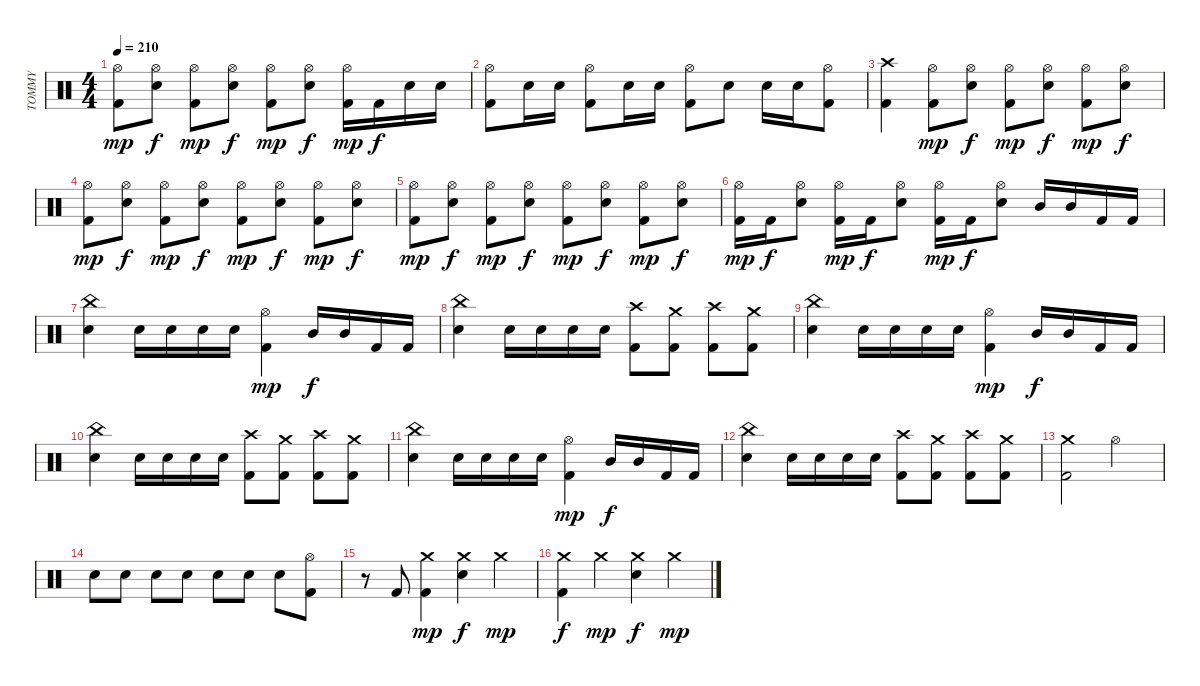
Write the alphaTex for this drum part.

\track ("TOMMY" "TOMMY") {instrument percussion}
\staff {score}
\articulation defaults
\ts (4 4)
\tempo 210
\clef neutral
\ks c
("Kick (hit) 2" "Hi-Hat (open)").8{dy mp} ("Snare (hit) 2" "Hi-Hat (open)").8{dy f} ("Kick (hit) 2" "Hi-Hat (open)").8{dy mp} ("Snare (hit) 2" "Hi-Hat (open)").8{dy f} ("Kick (hit) 2" "Hi-Hat (open)").8{dy mp} ("Snare (hit) 2" "Hi-Hat (open)").8{dy f} ("Kick (hit) 2" "Hi-Hat (open)").16{dy mp} "Kick (hit) 2".16{dy f} "Snare (hit) 2".16 "Snare (hit) 2".16 |
("Kick (hit) 2" "Hi-Hat (open)").8 "Snare (hit) 2".16 "Snare (hit) 2".16 ("Kick (hit) 2" "Hi-Hat (open)").8 "Snare (hit) 2".16 "Snare (hit) 2".16 ("Kick (hit) 2" "Hi-Hat (open)").8 "Snare (hit) 2".8 "Snare (hit) 2".16 "Snare (hit) 2".16 ("Kick (hit) 2" "Hi-Hat (open)").8 |
("Kick (hit) 2" "Crash high (hit)").4 ("Kick (hit) 2" "Hi-Hat (open)").8{dy mp} ("Snare (hit) 2" "Hi-Hat (open)").8{dy f} ("Kick (hit) 2" "Hi-Hat (open)").8{dy mp} ("Snare (hit) 2" "Hi-Hat (open)").8{dy f} ("Kick (hit) 2" "Hi-Hat (open)").8{dy mp} ("Snare (hit) 2" "Hi-Hat (open)").8{dy f} |
("Kick (hit) 2" "Hi-Hat (open)").8{dy mp} ("Snare (hit) 2" "Hi-Hat (open)").8{dy f} ("Kick (hit) 2" "Hi-Hat (open)").8{dy mp} ("Snare (hit) 2" "Hi-Hat (open)").8{dy f} ("Kick (hit) 2" "Hi-Hat (open)").8{dy mp} ("Snare (hit) 2" "Hi-Hat (open)").8{dy f} ("Kick (hit) 2" "Hi-Hat (open)").8{dy mp} ("Snare (hit) 2" "Hi-Hat (open)").8{dy f} |
("Kick (hit) 2" "Hi-Hat (open)").8{dy mp} ("Snare (hit) 2" "Hi-Hat (open)").8{dy f} ("Kick (hit) 2" "Hi-Hat (open)").8{dy mp} ("Snare (hit) 2" "Hi-Hat (open)").8{dy f} ("Kick (hit) 2" "Hi-Hat (open)").8{dy mp} ("Snare (hit) 2" "Hi-Hat (open)").8{dy f} ("Kick (hit) 2" "Hi-Hat (open)").8{dy mp} ("Snare (hit) 2" "Hi-Hat (open)").8{dy f} |
("Kick (hit) 2" "Hi-Hat (open)").16{dy mp} "Kick (hit) 2".16{dy f} ("Snare (hit) 2" "Hi-Hat (open)").8 ("Kick (hit) 2" "Hi-Hat (open)").16{dy mp} "Kick (hit) 2".16{dy f} ("Snare (hit) 2" "Hi-Hat (open)").8 ("Kick (hit) 2" "Hi-Hat (open)").16{dy mp} "Kick (hit) 2".16{dy f} ("Snare (hit) 2" "Hi-Hat (open)").8 "Mid Tom (hit)".16 "Mid Tom (hit)".16 "Kick (hit) 2".16 "Kick (hit) 2".16 |
("Snare (hit) 2" "China (hit)").4 "Snare (hit) 2".16 "Snare (hit) 2".16 "Snare (hit) 2".16 "Snare (hit) 2".16 ("Kick (hit) 2" "Hi-Hat (open)").4{dy mp} "Mid Tom (hit)".16{dy f} "Mid Tom (hit)".16 "Kick (hit) 2".16 "Kick (hit) 2".16 |
("Snare (hit) 2" "China (hit)").4 "Snare (hit) 2".16 "Snare (hit) 2".16 "Snare (hit) 2".16 "Snare (hit) 2".16 ("Kick (hit) 2" "Crash high (hit)").8 ("Kick (hit) 2" "Crash medium (hit)").8 ("Kick (hit) 2" "Crash high (hit)").8 ("Kick (hit) 2" "Crash medium (hit)").8 |
("Snare (hit) 2" "China (hit)").4 "Snare (hit) 2".16 "Snare (hit) 2".16 "Snare (hit) 2".16 "Snare (hit) 2".16 ("Kick (hit) 2" "Hi-Hat (open)").4{dy mp} "Mid Tom (hit)".16{dy f} "Mid Tom (hit)".16 "Kick (hit) 2".16 "Kick (hit) 2".16 |
("Snare (hit) 2" "China (hit)").4 "Snare (hit) 2".16 "Snare (hit) 2".16 "Snare (hit) 2".16 "Snare (hit) 2".16 ("Kick (hit) 2" "Crash high (hit)").8 ("Kick (hit) 2" "Crash medium (hit)").8 ("Kick (hit) 2" "Crash high (hit)").8 ("Kick (hit) 2" "Crash medium (hit)").8 |
("Snare (hit) 2" "China (hit)").4 "Snare (hit) 2".16 "Snare (hit) 2".16 "Snare (hit) 2".16 "Snare (hit) 2".16 ("Kick (hit) 2" "Hi-Hat (open)").4{dy mp} "Mid Tom (hit)".16{dy f} "Mid Tom (hit)".16 "Kick (hit) 2".16 "Kick (hit) 2".16 |
("Snare (hit) 2" "China (hit)").4 "Snare (hit) 2".16 "Snare (hit) 2".16 "Snare (hit) 2".16 "Snare (hit) 2".16 ("Kick (hit) 2" "Crash high (hit)").8 ("Kick (hit) 2" "Crash medium (hit)").8 ("Kick (hit) 2" "Crash high (hit)").8 ("Kick (hit) 2" "Crash medium (hit)").8 |
("Kick (hit) 2" "Crash medium (hit)").2 "Hi-Hat (open)".2 |
"Snare (hit) 2".8 "Snare (hit) 2".8 "Snare (hit) 2".8 "Snare (hit) 2".8 "Snare (hit) 2".8 "Snare (hit) 2".8 "Snare (hit) 2".8 ("Kick (hit) 2" "Hi-Hat (open)").8 |
r.8 "Kick (hit) 2".8 ("Kick (hit) 2" "Crash medium (hit)").4{dy mp} ("Snare (hit) 2" "Crash medium (hit)").4{dy f} "Crash medium (hit)".4{dy mp} |
("Kick (hit) 2" "Crash medium (hit)").4{dy f} "Crash medium (hit)".4{dy mp} ("Snare (hit) 2" "Crash medium (hit)").4{dy f} "Crash medium (hit)".4{dy mp}
